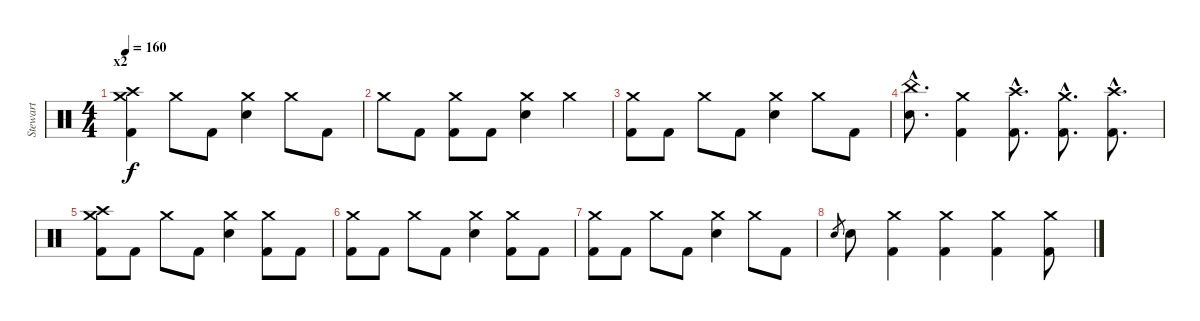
\track ("Stewart" "Stewart") {instrument percussion}
\staff {score}
\articulation defaults
\ts (4 4)
\section ("" "x2")
\tempo 160
\clef neutral
\ks c
("Crash medium (hit)" "Crash high (hit)" "Kick (hit) 2").4{dy f} "Crash medium (hit)".8 "Kick (hit) 2".8 ("Crash medium (hit)" "Electric Snare (hit)").4 "Crash medium (hit)".8 "Kick (hit) 2".8 |
"Crash medium (hit)".8 "Kick (hit) 2".8 ("Crash medium (hit)" "Kick (hit) 2").8 "Kick (hit) 2".8 ("Crash medium (hit)" "Electric Snare (hit)").4 "Crash medium (hit)".4 |
("Crash medium (hit)" "Kick (hit) 2").8 "Kick (hit) 2".8 "Crash medium (hit)".8 "Kick (hit) 2".8 ("Crash medium (hit)" "Electric Snare (hit)").4 "Crash medium (hit)".8 "Kick (hit) 2".8 |
("China (hit)"{hac} "Electric Snare (hit)"{hac}).8{d} ("Crash medium (hit)" "Kick (hit) 2").4 ("Crash high (hit)"{hac} "Kick (hit) 2"{hac}).8{d} ("Crash medium (hit)"{hac} "Kick (hit) 2"{hac}).8{d} ("Crash high (hit)"{hac} "Kick (hit) 2"{hac}).8{d} |
("Crash medium (hit)" "Crash high (hit)" "Kick (hit) 2").8 "Kick (hit) 2".8 "Crash medium (hit)".8 "Kick (hit) 2".8 ("Crash medium (hit)" "Electric Snare (hit)").4 ("Crash medium (hit)" "Kick (hit) 2").8 "Kick (hit) 2".8 |
("Crash medium (hit)" "Kick (hit) 2").8 "Kick (hit) 2".8 "Crash medium (hit)".8 "Kick (hit) 2".8 ("Crash medium (hit)" "Electric Snare (hit)").4 ("Crash medium (hit)" "Kick (hit) 2").8 "Kick (hit) 2".8 |
("Crash medium (hit)" "Kick (hit) 2").8 "Kick (hit) 2".8 "Crash medium (hit)".8 "Kick (hit) 2".8 ("Crash medium (hit)" "Electric Snare (hit)").4 "Crash medium (hit)".8 "Kick (hit) 2".8 |
"Electric Snare (hit)".8{gr} "Electric Snare (hit)".8 ("Crash medium (hit)" "Kick (hit) 2").4 ("Crash medium (hit)" "Kick (hit) 2").4 ("Crash medium (hit)" "Kick (hit) 2").4 ("Crash medium (hit)" "Kick (hit) 2").8
